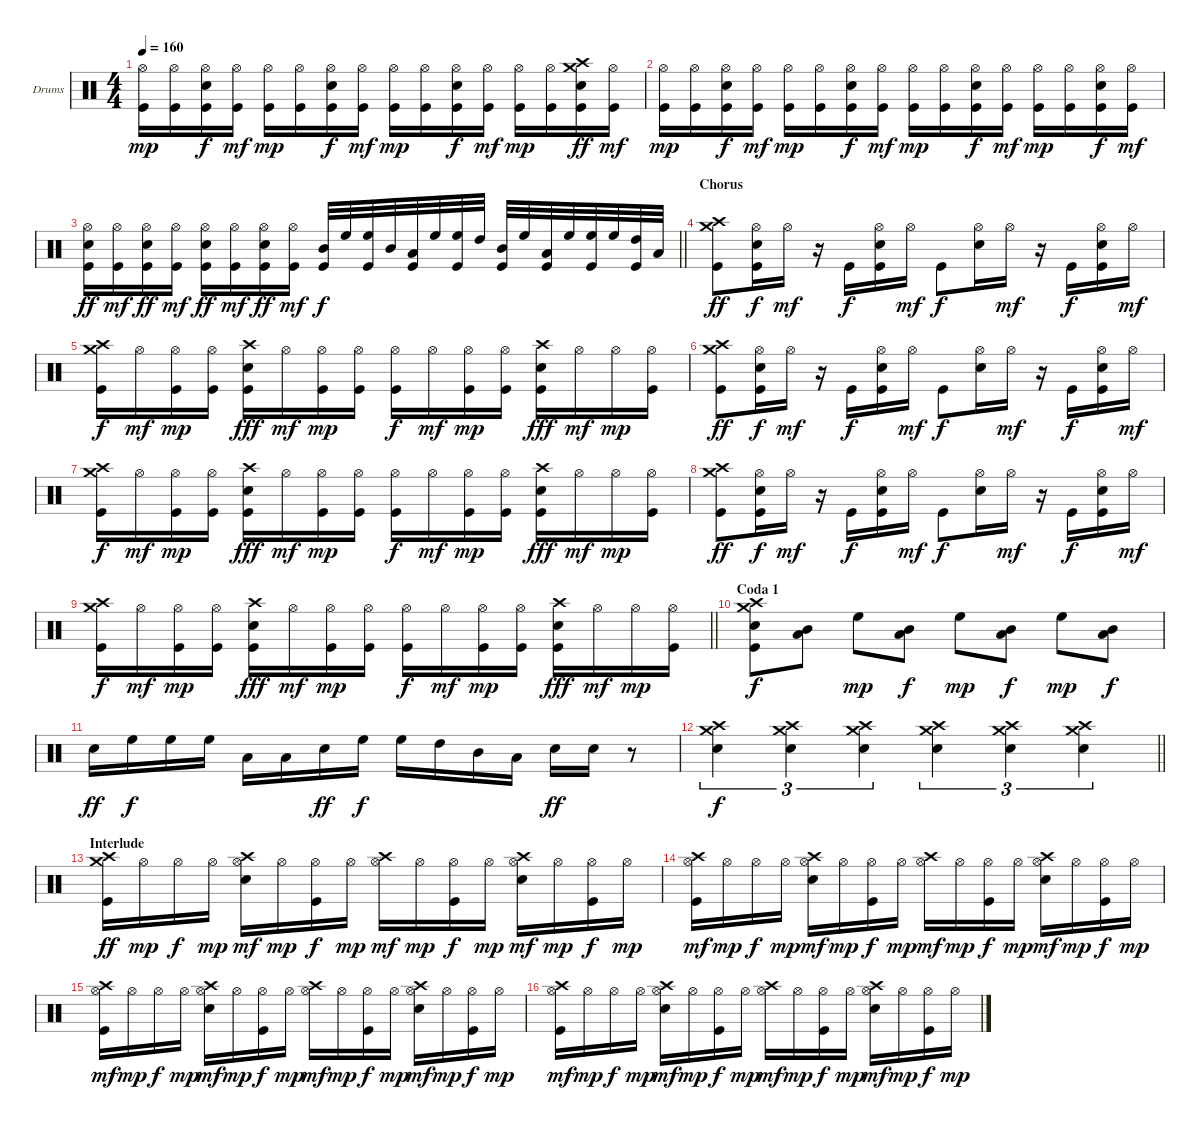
\bracketExtendMode groupsimilarinstruments
\firstSystemTrackNameOrientation horizontal
\otherSystemsTrackNameOrientation horizontal
\track ("Drumkit" "Drums") {instrument percussion}
\staff {score}
\articulation defaults
\ts (4 4)
\tempo 160
\clef neutral
\ks c
("Hi-Hat (open)" "Kick (hit)").16{dy mp} ("Hi-Hat (open)" "Kick (hit)").16 ("Hi-Hat (open)" "Snare (hit) 2" "Kick (hit)").16{dy f} ("Hi-Hat (open)" "Kick (hit)").16{dy mf} ("Hi-Hat (open)" "Kick (hit)").16{dy mp} ("Hi-Hat (open)" "Kick (hit)").16 ("Hi-Hat (open)" "Snare (hit) 2" "Kick (hit)").16{dy f} ("Hi-Hat (open)" "Kick (hit)").16{dy mf} ("Hi-Hat (open)" "Kick (hit)").16{dy mp} ("Hi-Hat (open)" "Kick (hit)").16 ("Hi-Hat (open)" "Snare (hit) 2" "Kick (hit)").16{dy f} ("Hi-Hat (open)" "Kick (hit)").16{dy mf} ("Hi-Hat (open)" "Kick (hit)").16{dy mp} ("Hi-Hat (open)" "Kick (hit)").16 ("Crash medium (hit)" "Crash high (hit)" "Snare (hit) 2" "Kick (hit)").16{dy ff} ("Hi-Hat (open)" "Kick (hit)").16{dy mf} |
("Hi-Hat (open)" "Kick (hit)").16{dy mp} ("Hi-Hat (open)" "Kick (hit)").16 ("Hi-Hat (open)" "Snare (hit) 2" "Kick (hit)").16{dy f} ("Hi-Hat (open)" "Kick (hit)").16{dy mf} ("Hi-Hat (open)" "Kick (hit)").16{dy mp} ("Hi-Hat (open)" "Kick (hit)").16 ("Hi-Hat (open)" "Snare (hit) 2" "Kick (hit)").16{dy f} ("Hi-Hat (open)" "Kick (hit)").16{dy mf} ("Hi-Hat (open)" "Kick (hit)").16{dy mp} ("Hi-Hat (open)" "Kick (hit)").16 ("Hi-Hat (open)" "Snare (hit) 2" "Kick (hit)").16{dy f} ("Hi-Hat (open)" "Kick (hit)").16{dy mf} ("Hi-Hat (open)" "Kick (hit)").16{dy mp} ("Hi-Hat (open)" "Kick (hit)").16 ("Hi-Hat (open)" "Snare (hit) 2" "Kick (hit)").16{dy f} ("Hi-Hat (open)" "Kick (hit)").16{dy mf} |
\barLineRight lightlight
("Hi-Hat (open)" "Snare (hit) 2" "Kick (hit)").16{dy ff} ("Hi-Hat (open)" "Kick (hit)").16{dy mf} ("Hi-Hat (open)" "Snare (hit) 2" "Kick (hit)").16{dy ff} ("Hi-Hat (open)" "Kick (hit)").16{dy mf} ("Hi-Hat (open)" "Snare (hit) 2" "Kick (hit)").16{dy ff} ("Hi-Hat (open)" "Kick (hit)").16{dy mf} ("Hi-Hat (open)" "Snare (hit) 2" "Kick (hit)").16{dy ff} ("Hi-Hat (open)" "Kick (hit)").16{dy mf} ("Mid Tom (hit)" "Kick (hit)").32{dy f} "High Floor Tom (hit)".32 ("High Floor Tom (hit)" "Kick (hit)").32 "Mid Tom (hit)".32 ("Low Tom (hit)" "Kick (hit)").32 "High Floor Tom (hit)".32 ("High Floor Tom (hit)" "Kick (hit)").32 "High Tom (hit)".32 ("Mid Tom (hit)" "Kick (hit)").32 "High Floor Tom (hit)".32 ("Low Tom (hit)" "Kick (hit)").32 "High Floor Tom (hit)".32 ("High Floor Tom (hit)" "Kick (hit)").32 "High Floor Tom (hit)".32 ("High Tom (hit)" "Kick (hit)").32 "Low Tom (hit)".32 |
\section ("" "Chorus")
("Crash medium (hit)" "Crash high (hit)" "Kick (hit)").8{dy ff} ("Hi-Hat (open)" "Snare (hit) 2" "Kick (hit)").16{dy f} "Hi-Hat (open)".16{dy mf} r.16 "Kick (hit)".16{dy f} ("Hi-Hat (open)" "Snare (hit) 2" "Kick (hit)").16 "Hi-Hat (open)".16{dy mf} "Kick (hit)".8{dy f} ("Hi-Hat (open)" "Snare (hit) 2").16 "Hi-Hat (open)".16{dy mf} r.16 "Kick (hit)".16{dy f} ("Hi-Hat (open)" "Snare (hit) 2" "Kick (hit)").16 "Hi-Hat (open)".16{dy mf} |
("Crash medium (hit)" "Crash high (hit)" "Kick (hit)").16{dy f} "Hi-Hat (open)".16{dy mf} ("Hi-Hat (open)" "Kick (hit)").16{dy mp} ("Hi-Hat (open)" "Kick (hit)").16 ("Crash high (hit)" "Snare (hit) 2" "Kick (hit)").16{dy fff} "Hi-Hat (open)".16{dy mf} ("Hi-Hat (open)" "Kick (hit)").16{dy mp} ("Hi-Hat (open)" "Kick (hit)").16 ("Hi-Hat (open)" "Kick (hit)").16{dy f} "Hi-Hat (open)".16{dy mf} ("Hi-Hat (open)" "Kick (hit)").16{dy mp} ("Hi-Hat (open)" "Kick (hit)").16 ("Crash high (hit)" "Snare (hit) 2" "Kick (hit)").16{dy fff} "Hi-Hat (open)".16{dy mf} "Hi-Hat (open)".16{dy mp} ("Hi-Hat (open)" "Kick (hit)").16 |
("Crash medium (hit)" "Crash high (hit)" "Kick (hit)").8{dy ff} ("Hi-Hat (open)" "Snare (hit) 2" "Kick (hit)").16{dy f} "Hi-Hat (open)".16{dy mf} r.16 "Kick (hit)".16{dy f} ("Hi-Hat (open)" "Snare (hit) 2" "Kick (hit)").16 "Hi-Hat (open)".16{dy mf} "Kick (hit)".8{dy f} ("Hi-Hat (open)" "Snare (hit) 2").16 "Hi-Hat (open)".16{dy mf} r.16 "Kick (hit)".16{dy f} ("Hi-Hat (open)" "Snare (hit) 2" "Kick (hit)").16 "Hi-Hat (open)".16{dy mf} |
("Crash medium (hit)" "Crash high (hit)" "Kick (hit)").16{dy f} "Hi-Hat (open)".16{dy mf} ("Hi-Hat (open)" "Kick (hit)").16{dy mp} ("Hi-Hat (open)" "Kick (hit)").16 ("Crash high (hit)" "Snare (hit) 2" "Kick (hit)").16{dy fff} "Hi-Hat (open)".16{dy mf} ("Hi-Hat (open)" "Kick (hit)").16{dy mp} ("Hi-Hat (open)" "Kick (hit)").16 ("Hi-Hat (open)" "Kick (hit)").16{dy f} "Hi-Hat (open)".16{dy mf} ("Hi-Hat (open)" "Kick (hit)").16{dy mp} ("Hi-Hat (open)" "Kick (hit)").16 ("Crash high (hit)" "Snare (hit) 2" "Kick (hit)").16{dy fff} "Hi-Hat (open)".16{dy mf} "Hi-Hat (open)".16{dy mp} ("Hi-Hat (open)" "Kick (hit)").16 |
("Crash medium (hit)" "Crash high (hit)" "Kick (hit)").8{dy ff} ("Hi-Hat (open)" "Snare (hit) 2" "Kick (hit)").16{dy f} "Hi-Hat (open)".16{dy mf} r.16 "Kick (hit)".16{dy f} ("Hi-Hat (open)" "Snare (hit) 2" "Kick (hit)").16 "Hi-Hat (open)".16{dy mf} "Kick (hit)".8{dy f} ("Hi-Hat (open)" "Snare (hit) 2").16 "Hi-Hat (open)".16{dy mf} r.16 "Kick (hit)".16{dy f} ("Hi-Hat (open)" "Snare (hit) 2" "Kick (hit)").16 "Hi-Hat (open)".16{dy mf} |
\barLineRight lightlight
("Crash medium (hit)" "Crash high (hit)" "Kick (hit)").16{dy f} "Hi-Hat (open)".16{dy mf} ("Hi-Hat (open)" "Kick (hit)").16{dy mp} ("Hi-Hat (open)" "Kick (hit)").16 ("Crash high (hit)" "Snare (hit) 2" "Kick (hit)").16{dy fff} "Hi-Hat (open)".16{dy mf} ("Hi-Hat (open)" "Kick (hit)").16{dy mp} ("Hi-Hat (open)" "Kick (hit)").16 ("Hi-Hat (open)" "Kick (hit)").16{dy f} "Hi-Hat (open)".16{dy mf} ("Hi-Hat (open)" "Kick (hit)").16{dy mp} ("Hi-Hat (open)" "Kick (hit)").16 ("Crash high (hit)" "Snare (hit) 2" "Kick (hit)").16{dy fff} "Hi-Hat (open)".16{dy mf} "Hi-Hat (open)".16{dy mp} ("Hi-Hat (open)" "Kick (hit)").16 |
\section ("" "Coda 1")
("Crash medium (hit)" "Crash high (hit)" "Snare (hit) 2" "Kick (hit)").8{dy f} ("Mid Tom (hit)" "Low Tom (hit)").8 "High Floor Tom (hit)".8{dy mp} ("Mid Tom (hit)" "Low Tom (hit)").8{dy f} "High Floor Tom (hit)".8{dy mp} ("Mid Tom (hit)" "Low Tom (hit)").8{dy f} "High Floor Tom (hit)".8{dy mp} ("Mid Tom (hit)" "Low Tom (hit)").8{dy f} |
"Snare (hit) 2".16{dy ff} "High Floor Tom (hit)".16{dy f} "High Floor Tom (hit)".16 "High Floor Tom (hit)".16 "Low Tom (hit)".16 "Low Tom (hit)".16 "Snare (hit) 2".16{dy ff} "High Floor Tom (hit)".16{dy f} "High Floor Tom (hit)".16 "High Tom (hit)".16 "Mid Tom (hit)".16 "Low Tom (hit)".16 "Snare (hit) 2".16{dy ff} "Snare (hit) 2".16 r.8 |
\barLineRight lightlight
("Crash medium (hit)" "Crash high (hit)" "Snare (hit) 2").4{tu (3 2) dy f} ("Crash medium (hit)" "Crash high (hit)" "Snare (hit) 2").4{tu (3 2)} ("Crash medium (hit)" "Crash high (hit)" "Snare (hit) 2").4{tu (3 2)} ("Crash medium (hit)" "Crash high (hit)" "Snare (hit) 2").4{tu (3 2)} ("Crash medium (hit)" "Crash high (hit)" "Snare (hit) 2").4{tu (3 2)} ("Crash medium (hit)" "Crash high (hit)" "Snare (hit) 2").4{tu (3 2)} |
\section ("" "Interlude")
("Crash medium (hit)" "Crash high (hit)" "Kick (hit)").16{dy ff} "Hi-Hat (open)".16{dy mp} "Hi-Hat (open)".16{dy f} "Hi-Hat (open)".16{dy mp} ("Crash high (hit)" "Hi-Hat (open)" "Snare (hit) 2").16{dy mf} "Hi-Hat (open)".16{dy mp} ("Hi-Hat (open)" "Kick (hit)").16{dy f} "Hi-Hat (open)".16{dy mp} ("Crash high (hit)" "Hi-Hat (open)").16{dy mf} "Hi-Hat (open)".16{dy mp} ("Hi-Hat (open)" "Kick (hit)").16{dy f} "Hi-Hat (open)".16{dy mp} ("Crash high (hit)" "Hi-Hat (open)" "Snare (hit) 2").16{dy mf} "Hi-Hat (open)".16{dy mp} ("Hi-Hat (open)" "Kick (hit)").16{dy f} "Hi-Hat (open)".16{dy mp} |
("Crash high (hit)" "Hi-Hat (open)" "Kick (hit)").16{dy mf} "Hi-Hat (open)".16{dy mp} "Hi-Hat (open)".16{dy f} "Hi-Hat (open)".16{dy mp} ("Crash high (hit)" "Hi-Hat (open)" "Snare (hit) 2").16{dy mf} "Hi-Hat (open)".16{dy mp} ("Hi-Hat (open)" "Kick (hit)").16{dy f} "Hi-Hat (open)".16{dy mp} ("Crash high (hit)" "Hi-Hat (open)").16{dy mf} "Hi-Hat (open)".16{dy mp} ("Hi-Hat (open)" "Kick (hit)").16{dy f} "Hi-Hat (open)".16{dy mp} ("Crash high (hit)" "Hi-Hat (open)" "Snare (hit) 2").16{dy mf} "Hi-Hat (open)".16{dy mp} ("Hi-Hat (open)" "Kick (hit)").16{dy f} "Hi-Hat (open)".16{dy mp} |
("Crash high (hit)" "Hi-Hat (open)" "Kick (hit)").16{dy mf} "Hi-Hat (open)".16{dy mp} "Hi-Hat (open)".16{dy f} "Hi-Hat (open)".16{dy mp} ("Crash high (hit)" "Hi-Hat (open)" "Snare (hit) 2").16{dy mf} "Hi-Hat (open)".16{dy mp} ("Hi-Hat (open)" "Kick (hit)").16{dy f} "Hi-Hat (open)".16{dy mp} ("Crash high (hit)" "Hi-Hat (open)").16{dy mf} "Hi-Hat (open)".16{dy mp} ("Hi-Hat (open)" "Kick (hit)").16{dy f} "Hi-Hat (open)".16{dy mp} ("Crash high (hit)" "Hi-Hat (open)" "Snare (hit) 2").16{dy mf} "Hi-Hat (open)".16{dy mp} ("Hi-Hat (open)" "Kick (hit)").16{dy f} "Hi-Hat (open)".16{dy mp} |
("Crash high (hit)" "Hi-Hat (open)" "Kick (hit)").16{dy mf} "Hi-Hat (open)".16{dy mp} "Hi-Hat (open)".16{dy f} "Hi-Hat (open)".16{dy mp} ("Crash high (hit)" "Hi-Hat (open)" "Snare (hit) 2").16{dy mf} "Hi-Hat (open)".16{dy mp} ("Hi-Hat (open)" "Kick (hit)").16{dy f} "Hi-Hat (open)".16{dy mp} ("Crash high (hit)" "Hi-Hat (open)").16{dy mf} "Hi-Hat (open)".16{dy mp} ("Hi-Hat (open)" "Kick (hit)").16{dy f} "Hi-Hat (open)".16{dy mp} ("Crash high (hit)" "Hi-Hat (open)" "Snare (hit) 2").16{dy mf} "Hi-Hat (open)".16{dy mp} ("Hi-Hat (open)" "Kick (hit)").16{dy f} "Hi-Hat (open)".16{dy mp}
